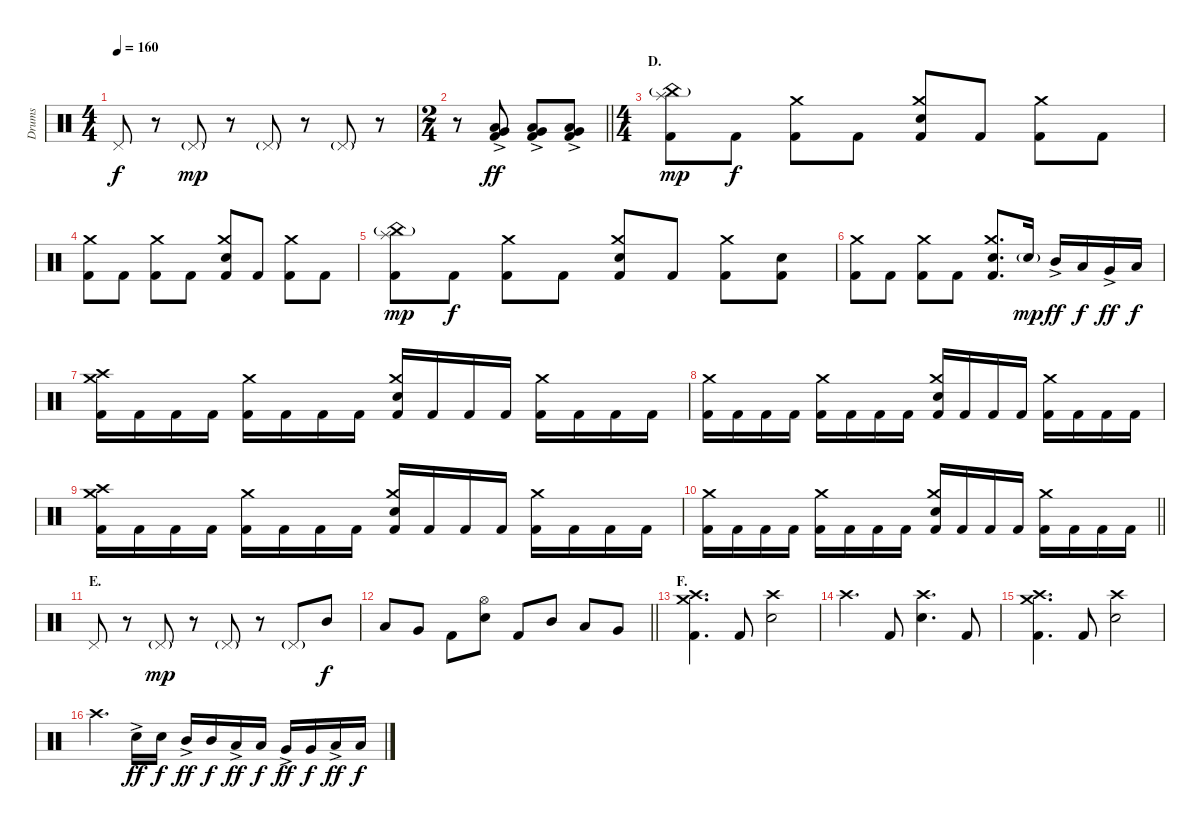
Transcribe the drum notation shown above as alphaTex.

\track ("Drums" "Drums") {instrument percussion}
\staff {score}
\articulation defaults
\ts (4 4)
\tempo 160
\clef neutral
\ks c "Pedal Hi-Hat (hit)".8{dy f}
r.8 "Pedal Hi-Hat (hit)"{g}.8{dy mp} r.8 "Pedal Hi-Hat (hit)"{g}.8 r.8 "Pedal Hi-Hat (hit)"{g}.8 r.8 |
\ts (2 4)
\barLineRight lightlight
r.8 ("Very Low Tom (hit)" "Low Floor Tom (hit)"{ac} "Kick (hit) 2").8{dy ff} ("Very Low Tom (hit)" "Low Floor Tom (hit)"{ac} "Kick (hit) 2").8 ("Very Low Tom (hit)" "Low Floor Tom (hit)"{ac} "Kick (hit) 2").8 |
\ts (4 4)
\section ("" "D.")
("China (hit)"{g} "Splash (hit)" "Kick (hit) 2").8{dy mp} "Kick (hit) 2".8{dy f} ("Crash medium (hit)" "Kick (hit) 2").8 "Kick (hit) 2".8 ("Crash medium (hit)" "Electric Snare (hit)" "Kick (hit) 2").8 "Kick (hit) 2".8 ("Crash medium (hit)" "Kick (hit) 2").8 "Kick (hit) 2".8 |
("Crash medium (hit)" "Kick (hit) 2").8 "Kick (hit) 2".8 ("Crash medium (hit)" "Kick (hit) 2").8 "Kick (hit) 2".8 ("Crash medium (hit)" "Electric Snare (hit)" "Kick (hit) 2").8 "Kick (hit) 2".8 ("Crash medium (hit)" "Kick (hit) 2").8 "Kick (hit) 2".8 |
("China (hit)"{g} "Splash (hit)" "Kick (hit) 2").8{dy mp} "Kick (hit) 2".8{dy f} ("Crash medium (hit)" "Kick (hit) 2").8 "Kick (hit) 2".8 ("Crash medium (hit)" "Electric Snare (hit)" "Kick (hit) 2").8 "Kick (hit) 2".8 ("Crash medium (hit)" "Kick (hit) 2").8 ("Electric Snare (hit)" "Kick (hit) 2").8 |
("Crash medium (hit)" "Kick (hit) 2").8 "Kick (hit) 2".8 ("Crash medium (hit)" "Kick (hit) 2").8 "Kick (hit) 2".8 ("Crash medium (hit)" "Electric Snare (hit)" "Kick (hit) 2").8{d} "Electric Snare (hit)"{g}.16{dy mp} "Mid Tom (hit)"{ac}.16{dy ff} "Low Tom (hit)".16{dy f} "Very Low Tom (hit)"{ac}.16{dy ff} "Low Floor Tom (hit)".16{dy f} |
("Crash medium (hit)" "Crash high (hit)" "Kick (hit) 2").16 "Kick (hit) 2".16 "Kick (hit) 2".16 "Kick (hit) 2".16 ("Crash medium (hit)" "Kick (hit) 2").16 "Kick (hit) 2".16 "Kick (hit) 2".16 "Kick (hit) 2".16 ("Crash medium (hit)" "Electric Snare (hit)" "Kick (hit) 2").16 "Kick (hit) 2".16 "Kick (hit) 2".16 "Kick (hit) 2".16 ("Crash medium (hit)" "Kick (hit) 2").16 "Kick (hit) 2".16 "Kick (hit) 2".16 "Kick (hit) 2".16 |
("Crash medium (hit)" "Kick (hit) 2").16 "Kick (hit) 2".16 "Kick (hit) 2".16 "Kick (hit) 2".16 ("Crash medium (hit)" "Kick (hit) 2").16 "Kick (hit) 2".16 "Kick (hit) 2".16 "Kick (hit) 2".16 ("Crash medium (hit)" "Electric Snare (hit)" "Kick (hit) 2").16 "Kick (hit) 2".16 "Kick (hit) 2".16 "Kick (hit) 2".16 ("Crash medium (hit)" "Kick (hit) 2").16 "Kick (hit) 2".16 "Kick (hit) 2".16 "Kick (hit) 2".16 |
("Crash medium (hit)" "Crash high (hit)" "Kick (hit) 2").16 "Kick (hit) 2".16 "Kick (hit) 2".16 "Kick (hit) 2".16 ("Crash medium (hit)" "Kick (hit) 2").16 "Kick (hit) 2".16 "Kick (hit) 2".16 "Kick (hit) 2".16 ("Crash medium (hit)" "Electric Snare (hit)" "Kick (hit) 2").16 "Kick (hit) 2".16 "Kick (hit) 2".16 "Kick (hit) 2".16 ("Crash medium (hit)" "Kick (hit) 2").16 "Kick (hit) 2".16 "Kick (hit) 2".16 "Kick (hit) 2".16 |
\barLineRight lightlight
("Crash medium (hit)" "Kick (hit) 2").16 "Kick (hit) 2".16 "Kick (hit) 2".16 "Kick (hit) 2".16 ("Crash medium (hit)" "Kick (hit) 2").16 "Kick (hit) 2".16 "Kick (hit) 2".16 "Kick (hit) 2".16 ("Crash medium (hit)" "Electric Snare (hit)" "Kick (hit) 2").16 "Kick (hit) 2".16 "Kick (hit) 2".16 "Kick (hit) 2".16 ("Crash medium (hit)" "Kick (hit) 2").16 "Kick (hit) 2".16 "Kick (hit) 2".16 "Kick (hit) 2".16 |
\section ("" "E.")
"Pedal Hi-Hat (hit)".8 r.8 "Pedal Hi-Hat (hit)"{g}.8{dy mp} r.8 "Pedal Hi-Hat (hit)"{g}.8 r.8 "Pedal Hi-Hat (hit)"{g}.8 "Mid Tom (hit)".8{dy f} |
\barLineRight lightlight "Low Tom (hit)".8 "Very Low Tom (hit)".8 "Kick (hit) 2".8
("Hi-Hat (open)" "Electric Snare (hit)").8 "Kick (hit) 2".8 "Mid Tom (hit)".8 "Low Tom (hit)".8 "Very Low Tom (hit)".8 |
\section ("" "F.")
("Crash medium (hit)" "Crash high (hit)" "Kick (hit) 2").4{d} "Kick (hit) 2".8 ("Crash high (hit)" "Electric Snare (hit)").2 |
"Crash high (hit)".4{d} "Kick (hit) 2".8 ("Crash high (hit)" "Electric Snare (hit)").4{d} "Kick (hit) 2".8 |
("Crash medium (hit)" "Crash high (hit)" "Kick (hit) 2").4{d} "Kick (hit) 2".8 ("Crash high (hit)" "Electric Snare (hit)").2 |
"Crash high (hit)".4{d} "Electric Snare (hit)"{ac}.16{dy ff} "Electric Snare (hit)".16{dy f} "Mid Tom (hit)"{ac}.16{dy ff} "Mid Tom (hit)".16{dy f} "Low Tom (hit)"{ac}.16{dy ff} "Low Tom (hit)".16{dy f} "Very Low Tom (hit)"{ac}.16{dy ff} "Very Low Tom (hit)".16{dy f} "Low Floor Tom (hit)"{ac}.16{dy ff} "Low Floor Tom (hit)".16{dy f}
